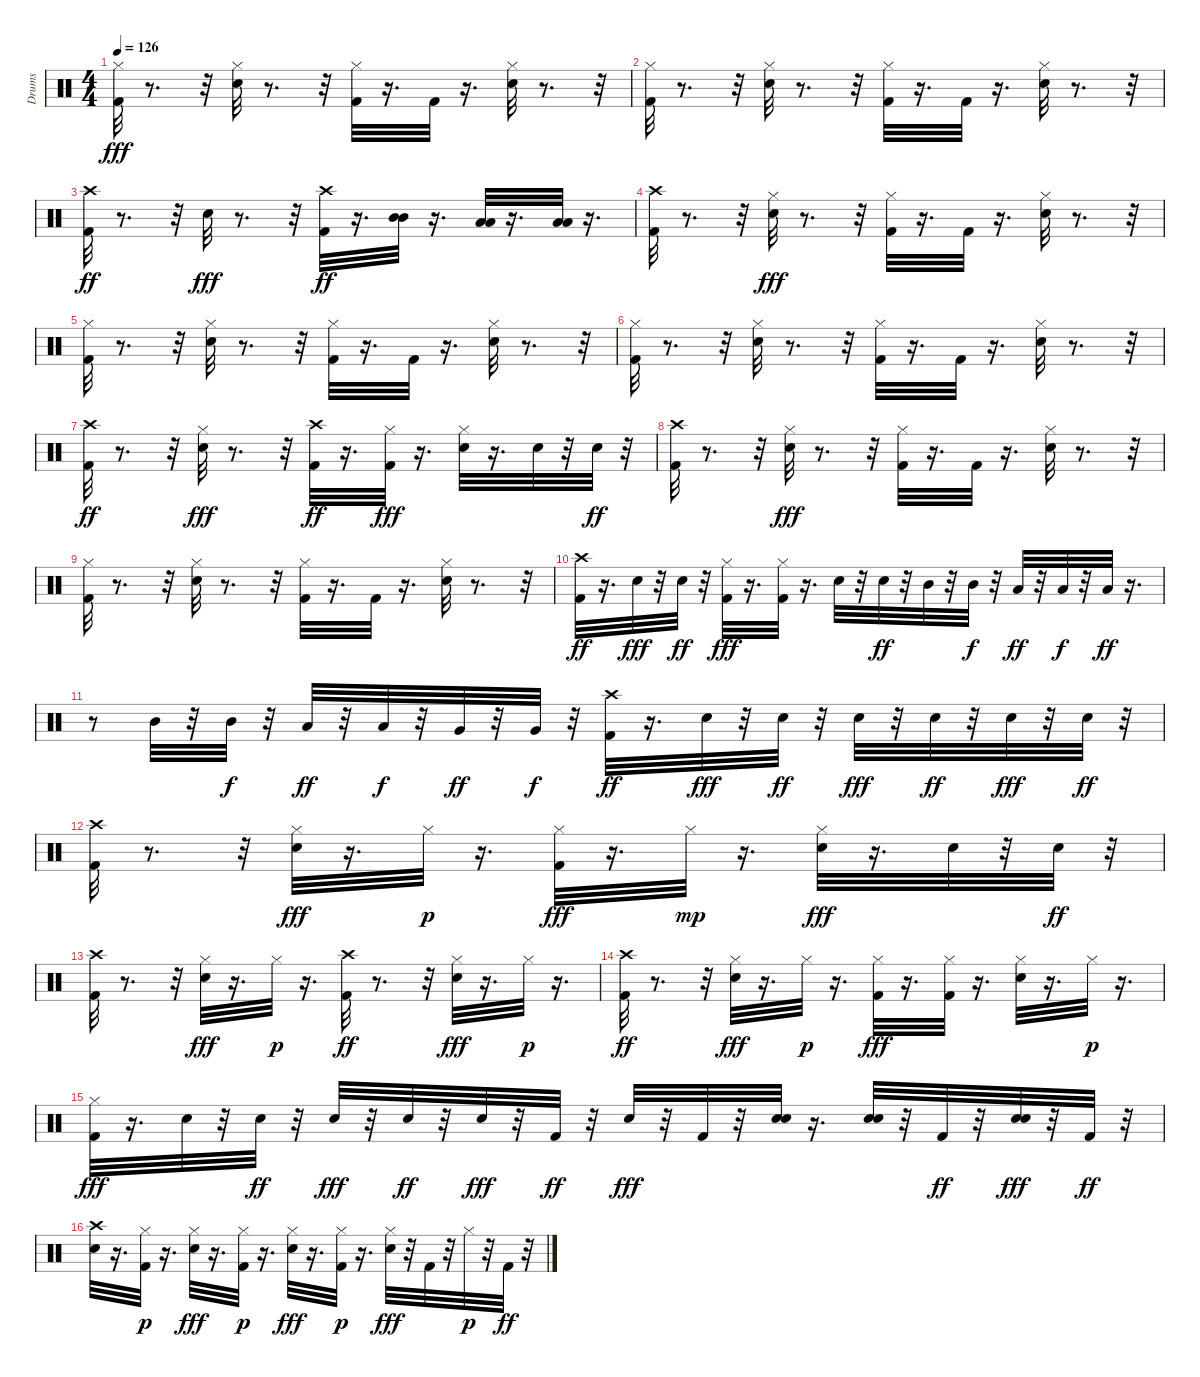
\track ("Drums                               " "Drums     ") {instrument percussion}
\staff {score}
\articulation defaults
\ts (4 4)
\tempo 126
\clef neutral
\ks c
("Kick (hit) 2" "Hi-Hat (closed)").32{dy fff} r.8{d} r.32 ("Snare (hit) 2" "Hi-Hat (closed)").32 r.8{d} r.32 ("Kick (hit) 2" "Hi-Hat (closed)").32 r.16{d} "Kick (hit) 2".32 r.16{d} ("Snare (hit) 2" "Hi-Hat (closed)").32 r.8{d} r.32 |
("Kick (hit) 2" "Hi-Hat (closed)").32 r.8{d} r.32 ("Snare (hit) 2" "Hi-Hat (closed)").32 r.8{d} r.32 ("Kick (hit) 2" "Hi-Hat (closed)").32 r.16{d} "Kick (hit) 2".32 r.16{d} ("Snare (hit) 2" "Hi-Hat (closed)").32 r.8{d} r.32 |
("Kick (hit) 2" "Crash high (hit)").32{dy ff} r.8{d} r.32 "Snare (hit) 2".32{dy fff} r.8{d} r.32 ("Kick (hit) 2" "Crash high (hit)").32{dy ff} r.16{d} ("Mid Tom (hit)" "Mid Tom (hit)").32 r.16{d} ("Low Tom (hit)" "Low Tom (hit)").32 r.16{d} ("Low Tom (hit)" "Low Tom (hit)").32 r.16{d} |
("Kick (hit) 2" "Crash high (hit)").32 r.8{d} r.32 ("Snare (hit) 2" "Hi-Hat (closed)").32{dy fff} r.8{d} r.32 ("Kick (hit) 2" "Hi-Hat (closed)").32 r.16{d} "Kick (hit) 2".32 r.16{d} ("Snare (hit) 2" "Hi-Hat (closed)").32 r.8{d} r.32 |
("Kick (hit) 2" "Hi-Hat (closed)").32 r.8{d} r.32 ("Snare (hit) 2" "Hi-Hat (closed)").32 r.8{d} r.32 ("Kick (hit) 2" "Hi-Hat (closed)").32 r.16{d} "Kick (hit) 2".32 r.16{d} ("Snare (hit) 2" "Hi-Hat (closed)").32 r.8{d} r.32 |
("Kick (hit) 2" "Hi-Hat (closed)").32 r.8{d} r.32 ("Snare (hit) 2" "Hi-Hat (closed)").32 r.8{d} r.32 ("Kick (hit) 2" "Hi-Hat (closed)").32 r.16{d} "Kick (hit) 2".32 r.16{d} ("Snare (hit) 2" "Hi-Hat (closed)").32 r.8{d} r.32 |
("Kick (hit) 2" "Crash high (hit)").32{dy ff} r.8{d} r.32 ("Snare (hit) 2" "Hi-Hat (closed)").32{dy fff} r.8{d} r.32 ("Kick (hit) 2" "Crash high (hit)").32{dy ff} r.16{d} ("Kick (hit) 2" "Hi-Hat (closed)").32{dy fff} r.16{d} ("Snare (hit) 2" "Hi-Hat (closed)").32 r.16{d} "Snare (hit) 2".32 r.32 "Snare (hit) 2".32{dy ff} r.32 |
("Kick (hit) 2" "Crash high (hit)").32 r.8{d} r.32 ("Snare (hit) 2" "Hi-Hat (closed)").32{dy fff} r.8{d} r.32 ("Kick (hit) 2" "Hi-Hat (closed)").32 r.16{d} "Kick (hit) 2".32 r.16{d} ("Snare (hit) 2" "Hi-Hat (closed)").32 r.8{d} r.32 |
("Kick (hit) 2" "Hi-Hat (closed)").32 r.8{d} r.32 ("Snare (hit) 2" "Hi-Hat (closed)").32 r.8{d} r.32 ("Kick (hit) 2" "Hi-Hat (closed)").32 r.16{d} "Kick (hit) 2".32 r.16{d} ("Snare (hit) 2" "Hi-Hat (closed)").32 r.8{d} r.32 |
("Kick (hit) 2" "Crash high (hit)").32{dy ff} r.16{d} "Snare (hit) 2".32{dy fff} r.32 "Snare (hit) 2".32{dy ff} r.32 ("Hi-Hat (closed)" "Kick (hit) 2").32{dy fff} r.16{d} ("Kick (hit) 2" "Hi-Hat (closed)").32 r.16{d} "Snare (hit) 2".32 r.32 "Snare (hit) 2".32{dy ff} r.32 "Mid Tom (hit)".32 r.32 "Mid Tom (hit)".32{dy f} r.32 "Low Tom (hit)".32{dy ff} r.32 "Low Tom (hit)".32{dy f} r.32 "Low Tom (hit)".32{dy ff} r.16{d} |
r.8 "Mid Tom (hit)".32 r.32 "Mid Tom (hit)".32{dy f} r.32 "Low Tom (hit)".32{dy ff} r.32 "Low Tom (hit)".32{dy f} r.32 "Very Low Tom (hit)".32{dy ff} r.32 "Very Low Tom (hit)".32{dy f} r.32 ("Kick (hit) 2" "Crash high (hit)").32{dy ff} r.16{d} "Snare (hit) 2".32{dy fff} r.32 "Snare (hit) 2".32{dy ff} r.32 "Snare (hit) 2".32{dy fff} r.32 "Snare (hit) 2".32{dy ff} r.32 "Snare (hit) 2".32{dy fff} r.32 "Snare (hit) 2".32{dy ff} r.32 |
("Kick (hit) 2" "Crash high (hit)").32 r.8{d} r.32 ("Snare (hit) 2" "Hi-Hat (closed)").32{dy fff} r.16{d} "Hi-Hat (closed)".32{dy p} r.16{d} ("Kick (hit) 2" "Hi-Hat (closed)").32{dy fff} r.16{d} "Hi-Hat (closed)".32{dy mp} r.16{d} ("Snare (hit) 2" "Hi-Hat (closed)").32{dy fff} r.16{d} "Snare (hit) 2".32 r.32 "Snare (hit) 2".32{dy ff} r.32 |
("Kick (hit) 2" "Crash high (hit)").32 r.8{d} r.32 ("Snare (hit) 2" "Hi-Hat (closed)").32{dy fff} r.16{d} "Hi-Hat (closed)".32{dy p} r.16{d} ("Kick (hit) 2" "Crash high (hit)").32{dy ff} r.8{d} r.32 ("Snare (hit) 2" "Hi-Hat (closed)").32{dy fff} r.16{d} "Hi-Hat (closed)".32{dy p} r.16{d} |
("Kick (hit) 2" "Crash high (hit)").32{dy ff} r.8{d} r.32 ("Snare (hit) 2" "Hi-Hat (closed)").32{dy fff} r.16{d} "Hi-Hat (closed)".32{dy p} r.16{d} ("Kick (hit) 2" "Hi-Hat (closed)").32{dy fff} r.16{d} ("Hi-Hat (closed)" "Kick (hit) 2").32 r.16{d} ("Snare (hit) 2" "Hi-Hat (closed)").32 r.16{d} "Hi-Hat (closed)".32{dy p} r.16{d} |
("Kick (hit) 2" "Hi-Hat (closed)").32{dy fff} r.16{d} "Snare (hit) 2".32 r.32 "Snare (hit) 2".32{dy ff} r.32 "Snare (hit) 2".32{dy fff} r.32 "Snare (hit) 2".32{dy ff} r.32 "Snare (hit) 2".32{dy fff} r.32 "Kick (hit) 2".32{dy ff} r.32 "Snare (hit) 2".32{dy fff} r.32 "Kick (hit) 2".32 r.32 ("Snare (hit) 2" "Snare (hit) 2").32 r.16{d} ("Snare (hit) 2" "Snare (hit) 2").32 r.32 "Kick (hit) 2".32{dy ff} r.32 ("Snare (hit) 2" "Snare (hit) 2").32{dy fff} r.32 "Kick (hit) 2".32{dy ff} r.32 |
("Snare (hit) 2" "Crash high (hit)").32 r.16{d} ("Kick (hit) 2" "Hi-Hat (closed)").32{dy p} r.16{d} ("Snare (hit) 2" "Hi-Hat (closed)").32{dy fff} r.16{d} ("Kick (hit) 2" "Hi-Hat (closed)").32{dy p} r.16{d} ("Snare (hit) 2" "Hi-Hat (closed)").32{dy fff} r.16{d} ("Kick (hit) 2" "Hi-Hat (closed)").32{dy p} r.16{d} ("Snare (hit) 2" "Hi-Hat (closed)").32{dy fff} r.32 "Kick (hit) 2".32 r.32 "Hi-Hat (closed)".32{dy p} r.32 "Kick (hit) 2".32{dy ff} r.32
